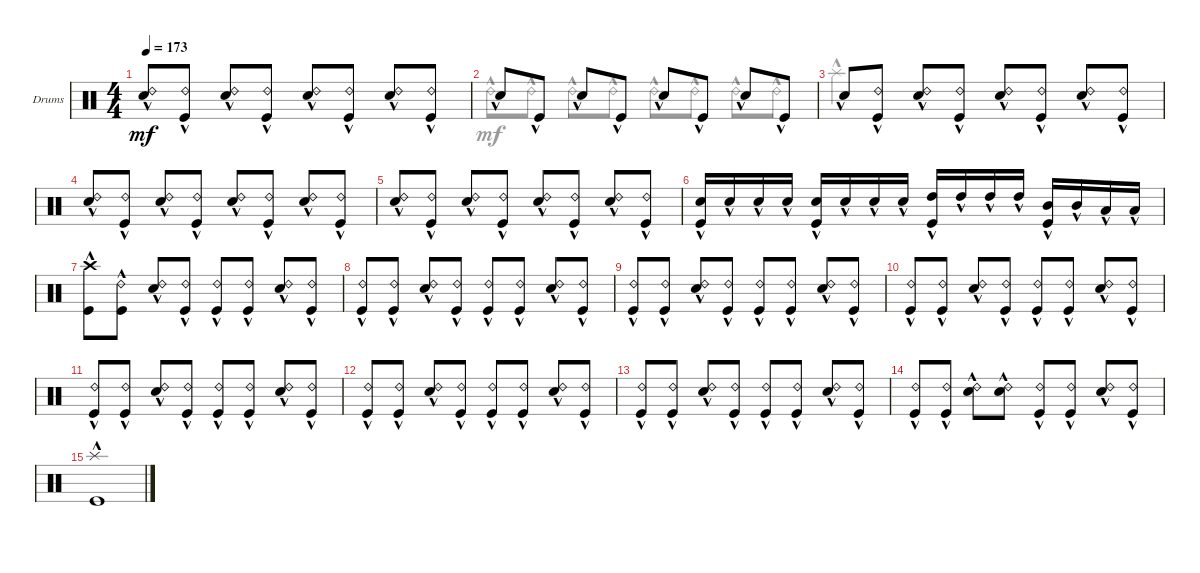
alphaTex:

\defaultSystemsLayout 4
\bracketExtendMode groupsimilarinstruments
\firstSystemTrackNameOrientation horizontal
\otherSystemsTrackNameOrientation horizontal
\track ("Drumkit" "Drums") {instrument percussion}
\staff {score}
\articulation defaults
\voice
\ts (4 4)
\tempo 173
\clef neutral
\ks c
("Snare (hit) 2"{hac} "Ride (bell) 2"{hac}).8{dy mf} ("Kick (hit)"{hac} "Ride (bell) 2"{hac}).8 ("Snare (hit) 2"{hac} "Ride (bell) 2"{hac}).8 ("Kick (hit)"{hac} "Ride (bell) 2"{hac}).8 ("Snare (hit) 2"{hac} "Ride (bell) 2"{hac}).8 ("Kick (hit)"{hac} "Ride (bell) 2"{hac}).8 ("Snare (hit) 2"{hac} "Ride (bell) 2"{hac}).8 ("Kick (hit)"{hac} "Ride (bell) 2"{hac}).8 |
"Snare (hit) 2"{hac}.8 "Kick (hit)"{hac}.8 "Snare (hit) 2"{hac}.8 "Kick (hit)"{hac}.8 "Snare (hit) 2"{hac}.8 "Kick (hit)"{hac}.8 "Snare (hit) 2"{hac}.8 "Kick (hit)"{hac}.8 |
"Snare (hit) 2"{hac}.8 ("Kick (hit)"{hac} "Ride (bell) 2"{hac}).8 ("Snare (hit) 2"{hac} "Ride (bell) 2"{hac}).8 ("Kick (hit)"{hac} "Ride (bell) 2"{hac}).8 ("Snare (hit) 2"{hac} "Ride (bell) 2"{hac}).8 ("Kick (hit)"{hac} "Ride (bell) 2"{hac}).8 ("Snare (hit) 2"{hac} "Ride (bell) 2"{hac}).8 ("Kick (hit)"{hac} "Ride (bell) 2"{hac}).8 |
("Snare (hit) 2"{hac} "Ride (bell) 2"{hac}).8 ("Kick (hit)"{hac} "Ride (bell) 2"{hac}).8 ("Snare (hit) 2"{hac} "Ride (bell) 2"{hac}).8 ("Kick (hit)"{hac} "Ride (bell) 2"{hac}).8 ("Snare (hit) 2"{hac} "Ride (bell) 2"{hac}).8 ("Kick (hit)"{hac} "Ride (bell) 2"{hac}).8 ("Snare (hit) 2"{hac} "Ride (bell) 2"{hac}).8 ("Kick (hit)"{hac} "Ride (bell) 2"{hac}).8 |
("Snare (hit) 2"{hac} "Ride (bell) 2"{hac}).8 ("Kick (hit)"{hac} "Ride (bell) 2"{hac}).8 ("Snare (hit) 2"{hac} "Ride (bell) 2"{hac}).8 ("Kick (hit)"{hac} "Ride (bell) 2"{hac}).8 ("Snare (hit) 2"{hac} "Ride (bell) 2"{hac}).8 ("Kick (hit)"{hac} "Ride (bell) 2"{hac}).8 ("Snare (hit) 2"{hac} "Ride (bell) 2"{hac}).8 ("Kick (hit)"{hac} "Ride (bell) 2"{hac}).8 |
("Kick (hit)"{hac} "Snare (hit) 2"{hac}).16 "Snare (hit) 2"{hac}.16 "Snare (hit) 2"{hac}.16 "Snare (hit) 2"{hac}.16 ("Kick (hit)"{hac} "Snare (hit) 2"{hac}).16 "Snare (hit) 2"{hac}.16 "Snare (hit) 2"{hac}.16 "Snare (hit) 2"{hac}.16 ("Kick (hit)"{hac} "High Tom (hit)"{hac}).16 "High Tom (hit)"{hac}.16 "High Tom (hit)"{hac}.16 "High Tom (hit)"{hac}.16 ("Mid Tom (hit)"{hac} "Kick (hit)"{hac}).16 "Mid Tom (hit)"{hac}.16 "Low Tom (hit)"{hac}.16 "Low Tom (hit)"{hac}.16 |
("Kick (hit)"{hac} "Crash high (hit)"{hac}).8 ("Ride (bell) 2"{hac} "Kick (hit)"{hac}).8 ("Ride (bell) 2"{hac} "Snare (hit) 2"{hac}).8 ("Ride (bell) 2"{hac} "Kick (hit)"{hac}).8 ("Ride (bell) 2"{hac} "Kick (hit)"{hac}).8 ("Ride (bell) 2"{hac} "Kick (hit)"{hac}).8 ("Ride (bell) 2"{hac} "Snare (hit) 2"{hac}).8 ("Ride (bell) 2"{hac} "Kick (hit)").8 |
("Ride (bell) 2"{hac} "Kick (hit)"{hac}).8 ("Ride (bell) 2"{hac} "Kick (hit)"{hac}).8 ("Ride (bell) 2"{hac} "Snare (hit) 2"{hac}).8 ("Ride (bell) 2"{hac} "Kick (hit)"{hac}).8 ("Ride (bell) 2"{hac} "Kick (hit)"{hac}).8 ("Ride (bell) 2"{hac} "Kick (hit)"{hac}).8 ("Ride (bell) 2"{hac} "Snare (hit) 2"{hac}).8 ("Ride (bell) 2"{hac} "Kick (hit)"{hac}).8 |
("Ride (bell) 2"{hac} "Kick (hit)"{hac}).8 ("Ride (bell) 2"{hac} "Kick (hit)"{hac}).8 ("Ride (bell) 2"{hac} "Snare (hit) 2"{hac}).8 ("Ride (bell) 2"{hac} "Kick (hit)"{hac}).8 ("Ride (bell) 2"{hac} "Kick (hit)"{hac}).8 ("Ride (bell) 2"{hac} "Kick (hit)"{hac}).8 ("Ride (bell) 2"{hac} "Snare (hit) 2"{hac}).8 ("Ride (bell) 2"{hac} "Kick (hit)"{hac}).8 |
("Ride (bell) 2"{hac} "Kick (hit)"{hac}).8 ("Ride (bell) 2"{hac} "Kick (hit)"{hac}).8 ("Ride (bell) 2"{hac} "Snare (hit) 2"{hac}).8 ("Ride (bell) 2"{hac} "Kick (hit)"{hac}).8 ("Ride (bell) 2"{hac} "Kick (hit)"{hac}).8 ("Ride (bell) 2"{hac} "Kick (hit)"{hac}).8 ("Ride (bell) 2"{hac} "Snare (hit) 2"{hac}).8 ("Ride (bell) 2"{hac} "Kick (hit)"{hac}).8 |
("Ride (bell) 2"{hac} "Kick (hit)"{hac}).8 ("Ride (bell) 2"{hac} "Kick (hit)"{hac}).8 ("Ride (bell) 2"{hac} "Snare (hit) 2"{hac}).8 ("Ride (bell) 2"{hac} "Kick (hit)"{hac}).8 ("Ride (bell) 2"{hac} "Kick (hit)"{hac}).8 ("Ride (bell) 2"{hac} "Kick (hit)"{hac}).8 ("Ride (bell) 2"{hac} "Snare (hit) 2"{hac}).8 ("Ride (bell) 2"{hac} "Kick (hit)"{hac}).8 |
("Ride (bell) 2"{hac} "Kick (hit)"{hac}).8 ("Ride (bell) 2"{hac} "Kick (hit)"{hac}).8 ("Ride (bell) 2"{hac} "Snare (hit) 2"{hac}).8 ("Ride (bell) 2"{hac} "Kick (hit)"{hac}).8 ("Ride (bell) 2"{hac} "Kick (hit)"{hac}).8 ("Ride (bell) 2"{hac} "Kick (hit)"{hac}).8 ("Ride (bell) 2"{hac} "Snare (hit) 2"{hac}).8 ("Ride (bell) 2"{hac} "Kick (hit)"{hac}).8 |
("Ride (bell) 2"{hac} "Kick (hit)"{hac}).8 ("Ride (bell) 2"{hac} "Kick (hit)"{hac}).8 ("Ride (bell) 2"{hac} "Snare (hit) 2"{hac}).8 ("Ride (bell) 2"{hac} "Kick (hit)"{hac}).8 ("Ride (bell) 2"{hac} "Kick (hit)"{hac}).8 ("Ride (bell) 2"{hac} "Kick (hit)"{hac}).8 ("Ride (bell) 2"{hac} "Snare (hit) 2"{hac}).8 ("Ride (bell) 2"{hac} "Kick (hit)"{hac}).8 |
("Ride (bell) 2"{hac} "Kick (hit)"{hac}).8 ("Ride (bell) 2"{hac} "Kick (hit)"{hac}).8 ("Ride (bell) 2"{hac} "Snare (hit) 2"{hac}).8 ("Ride (bell) 2"{hac} "Snare (hit) 2"{hac}).8 ("Ride (bell) 2"{hac} "Kick (hit)"{hac}).8 ("Ride (bell) 2"{hac} "Kick (hit)"{hac}).8 ("Ride (bell) 2"{hac} "Snare (hit) 2"{hac}).8 ("Ride (bell) 2"{hac} "Kick (hit)"{hac}).8 |
("Splash (hit)" "Kick (hit)"{hac}).1 |
\voice
\clef neutral
\ottava regular
\simile none
\ks c
|
"Ride (bell) 2"{hac}.8{dy mf} "Ride (bell) 2"{hac}.8 "Ride (bell) 2"{hac}.8 "Ride (bell) 2"{hac}.8 "Ride (bell) 2"{hac}.8 "Ride (bell) 2"{hac}.8 "Ride (bell) 2"{hac}.8 "Ride (bell) 2"{hac}.8 |
"Splash (hit)"{hac}.4 |
|
|
|
|
|
|
|
|
|
|
|
|
